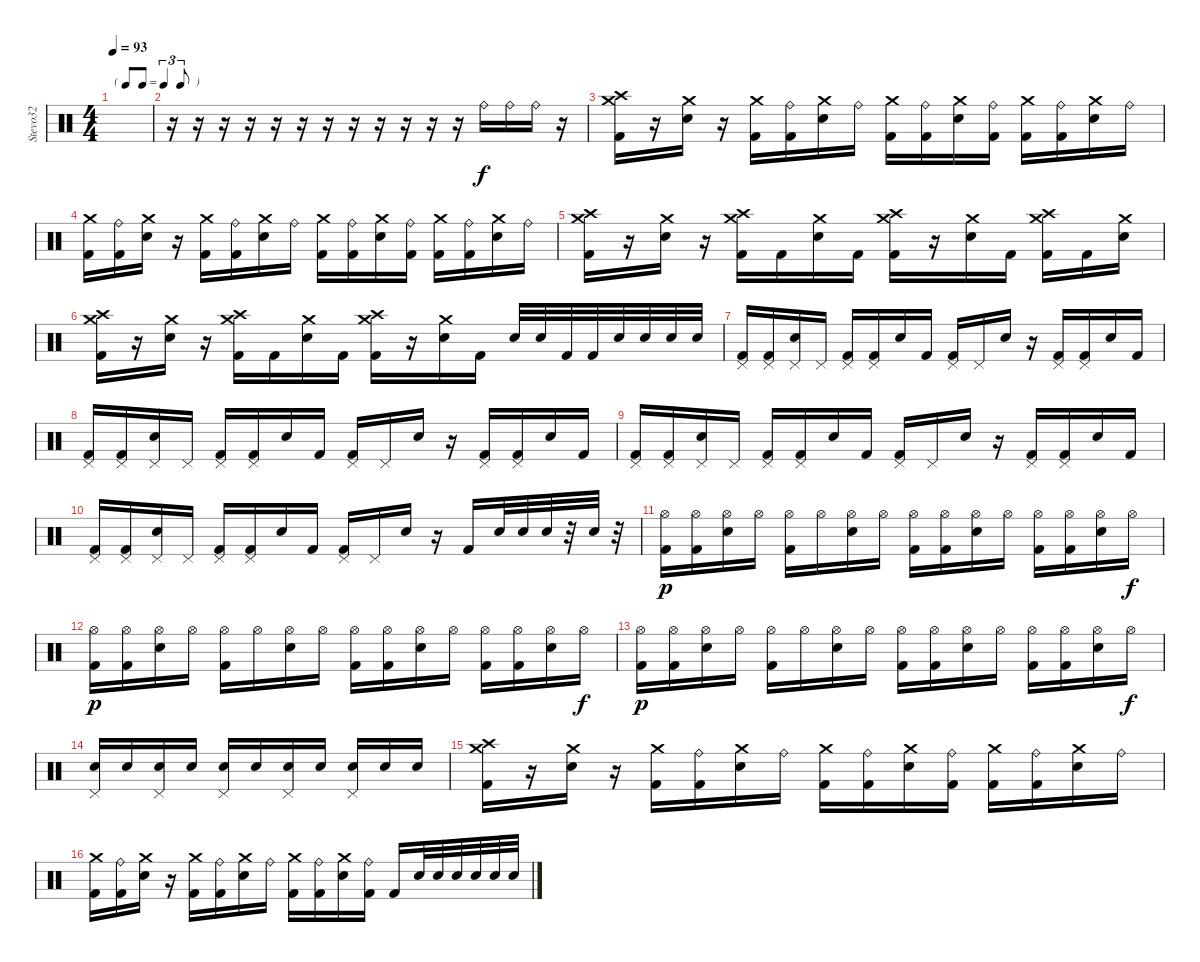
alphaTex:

\track ("Stevo32" "Stevo32") {instrument percussion}
\staff {score}
\articulation defaults
\ts (4 4)
\tf triplet8th
\tempo 93
\clef neutral
\ks c
|
r.16 r.16 r.16 r.16 r.16 r.16 r.16 r.16 r.16 r.16 r.16 r.16 "Ride (bell)".16 "Ride (bell)".16 "Ride (bell)".16 r.16 |
("Crash medium (hit)" "Crash high (hit)" "Kick (hit) 2").16{dy f} r.16 ("Crash medium (hit)" "Electric Snare (hit)").16 r.16 ("Crash medium (hit)" "Kick (hit) 2").16 ("Ride (bell)" "Kick (hit) 2").16 ("Crash medium (hit)" "Electric Snare (hit)").16 "Ride (bell)".16 ("Crash medium (hit)" "Kick (hit) 2").16 ("Ride (bell)" "Kick (hit) 2").16 ("Crash medium (hit)" "Electric Snare (hit)").16 ("Ride (bell)" "Kick (hit) 2").16 ("Crash medium (hit)" "Kick (hit) 2").16 ("Ride (bell)" "Kick (hit) 2").16 ("Crash medium (hit)" "Electric Snare (hit)").16 "Ride (bell)".16 |
("Crash medium (hit)" "Kick (hit) 2").16 ("Ride (bell)" "Kick (hit) 2").16 ("Crash medium (hit)" "Electric Snare (hit)").16 r.16 ("Crash medium (hit)" "Kick (hit) 2").16 ("Ride (bell)" "Kick (hit) 2").16 ("Crash medium (hit)" "Electric Snare (hit)").16 "Ride (bell)".16 ("Crash medium (hit)" "Kick (hit) 2").16 ("Ride (bell)" "Kick (hit) 2").16 ("Crash medium (hit)" "Electric Snare (hit)").16 ("Ride (bell)" "Kick (hit) 2").16 ("Crash medium (hit)" "Kick (hit) 2").16 ("Ride (bell)" "Kick (hit) 2").16 ("Crash medium (hit)" "Electric Snare (hit)").16 "Ride (bell)".16 |
("Crash medium (hit)" "Crash high (hit)" "Kick (hit) 2").16 r.16 ("Crash medium (hit)" "Electric Snare (hit)").16 r.16 ("Crash high (hit)" "Crash medium (hit)" "Kick (hit) 2").16 "Kick (hit) 2".16 ("Crash medium (hit)" "Electric Snare (hit)").16 "Kick (hit) 2".16 ("Crash high (hit)" "Crash medium (hit)" "Kick (hit) 2").16 r.16 ("Crash medium (hit)" "Electric Snare (hit)").16 "Kick (hit) 2".16 ("Crash high (hit)" "Crash medium (hit)" "Kick (hit) 2").16 "Kick (hit) 2".16 ("Crash medium (hit)" "Electric Snare (hit)").16 |
("Crash medium (hit)" "Crash high (hit)" "Kick (hit) 2").16 r.16 ("Crash medium (hit)" "Electric Snare (hit)").16 r.16 ("Crash high (hit)" "Crash medium (hit)" "Kick (hit) 2").16 "Kick (hit) 2".16 ("Crash medium (hit)" "Electric Snare (hit)").16 "Kick (hit) 2".16 ("Crash high (hit)" "Crash medium (hit)" "Kick (hit) 2").16 r.16 ("Crash medium (hit)" "Electric Snare (hit)").16 "Kick (hit) 2".16 "Electric Snare (hit)".32 "Electric Snare (hit)".32 "Kick (hit) 2".32 "Kick (hit) 2".32 "Electric Snare (hit)".32 "Electric Snare (hit)".32 "Electric Snare (hit)".32 "Electric Snare (hit)".32 |
("Pedal Hi-Hat (hit)" "Kick (hit) 2").16 ("Pedal Hi-Hat (hit)" "Kick (hit) 2").16 ("Pedal Hi-Hat (hit)" "Electric Snare (hit)").16 "Pedal Hi-Hat (hit)".16 ("Pedal Hi-Hat (hit)" "Kick (hit) 2").16 ("Pedal Hi-Hat (hit)" "Kick (hit) 2").16 "Electric Snare (hit)".16 "Kick (hit) 2".16 ("Pedal Hi-Hat (hit)" "Kick (hit) 2").16 "Pedal Hi-Hat (hit)".16 "Electric Snare (hit)".16 r.16 ("Pedal Hi-Hat (hit)" "Kick (hit) 2").16 ("Pedal Hi-Hat (hit)" "Kick (hit) 2").16 "Electric Snare (hit)".16 "Kick (hit) 2".16 |
("Pedal Hi-Hat (hit)" "Kick (hit) 2").16 ("Pedal Hi-Hat (hit)" "Kick (hit) 2").16 ("Pedal Hi-Hat (hit)" "Electric Snare (hit)").16 "Pedal Hi-Hat (hit)".16 ("Pedal Hi-Hat (hit)" "Kick (hit) 2").16 ("Pedal Hi-Hat (hit)" "Kick (hit) 2").16 "Electric Snare (hit)".16 "Kick (hit) 2".16 ("Pedal Hi-Hat (hit)" "Kick (hit) 2").16 "Pedal Hi-Hat (hit)".16 "Electric Snare (hit)".16 r.16 ("Pedal Hi-Hat (hit)" "Kick (hit) 2").16 ("Pedal Hi-Hat (hit)" "Kick (hit) 2").16 "Electric Snare (hit)".16 "Kick (hit) 2".16 |
("Pedal Hi-Hat (hit)" "Kick (hit) 2").16 ("Pedal Hi-Hat (hit)" "Kick (hit) 2").16 ("Pedal Hi-Hat (hit)" "Electric Snare (hit)").16 "Pedal Hi-Hat (hit)".16 ("Pedal Hi-Hat (hit)" "Kick (hit) 2").16 ("Pedal Hi-Hat (hit)" "Kick (hit) 2").16 "Electric Snare (hit)".16 "Kick (hit) 2".16 ("Pedal Hi-Hat (hit)" "Kick (hit) 2").16 "Pedal Hi-Hat (hit)".16 "Electric Snare (hit)".16 r.16 ("Pedal Hi-Hat (hit)" "Kick (hit) 2").16 ("Pedal Hi-Hat (hit)" "Kick (hit) 2").16 "Electric Snare (hit)".16 "Kick (hit) 2".16 |
("Pedal Hi-Hat (hit)" "Kick (hit) 2").16 ("Pedal Hi-Hat (hit)" "Kick (hit) 2").16 ("Pedal Hi-Hat (hit)" "Electric Snare (hit)").16 "Pedal Hi-Hat (hit)".16 ("Pedal Hi-Hat (hit)" "Kick (hit) 2").16 ("Pedal Hi-Hat (hit)" "Kick (hit) 2").16 "Electric Snare (hit)".16 "Kick (hit) 2".16 ("Pedal Hi-Hat (hit)" "Kick (hit) 2").16 "Pedal Hi-Hat (hit)".16 "Electric Snare (hit)".16 r.16 "Kick (hit) 2".16 "Electric Snare (hit)".32 "Electric Snare (hit)".32 "Electric Snare (hit)".32 r.32 "Electric Snare (hit)".32 r.32 |
("Hi-Hat (open)" "Kick (hit) 2").16{dy p} ("Hi-Hat (open)" "Kick (hit) 2").16 ("Hi-Hat (open)" "Electric Snare (hit)").16 "Hi-Hat (open)".16 ("Hi-Hat (open)" "Kick (hit) 2").16 "Hi-Hat (open)".16 ("Hi-Hat (open)" "Electric Snare (hit)").16 "Hi-Hat (open)".16 ("Hi-Hat (open)" "Kick (hit) 2").16 ("Hi-Hat (open)" "Kick (hit) 2").16 ("Hi-Hat (open)" "Electric Snare (hit)").16 "Hi-Hat (open)".16 ("Hi-Hat (open)" "Kick (hit) 2").16 ("Hi-Hat (open)" "Kick (hit) 2").16 ("Hi-Hat (open)" "Electric Snare (hit)").16 "Hi-Hat (open)".16{dy f} |
("Hi-Hat (open)" "Kick (hit) 2").16{dy p} ("Hi-Hat (open)" "Kick (hit) 2").16 ("Hi-Hat (open)" "Electric Snare (hit)").16 "Hi-Hat (open)".16 ("Hi-Hat (open)" "Kick (hit) 2").16 "Hi-Hat (open)".16 ("Hi-Hat (open)" "Electric Snare (hit)").16 "Hi-Hat (open)".16 ("Hi-Hat (open)" "Kick (hit) 2").16 ("Hi-Hat (open)" "Kick (hit) 2").16 ("Hi-Hat (open)" "Electric Snare (hit)").16 "Hi-Hat (open)".16 ("Hi-Hat (open)" "Kick (hit) 2").16 ("Hi-Hat (open)" "Kick (hit) 2").16 ("Hi-Hat (open)" "Electric Snare (hit)").16 "Hi-Hat (open)".16{dy f} |
("Hi-Hat (open)" "Kick (hit) 2").16{dy p} ("Hi-Hat (open)" "Kick (hit) 2").16 ("Hi-Hat (open)" "Electric Snare (hit)").16 "Hi-Hat (open)".16 ("Hi-Hat (open)" "Kick (hit) 2").16 "Hi-Hat (open)".16 ("Hi-Hat (open)" "Electric Snare (hit)").16 "Hi-Hat (open)".16 ("Hi-Hat (open)" "Kick (hit) 2").16 ("Hi-Hat (open)" "Kick (hit) 2").16 ("Hi-Hat (open)" "Electric Snare (hit)").16 "Hi-Hat (open)".16 ("Hi-Hat (open)" "Kick (hit) 2").16 ("Hi-Hat (open)" "Kick (hit) 2").16 ("Hi-Hat (open)" "Electric Snare (hit)").16 "Hi-Hat (open)".16{dy f} |
("Pedal Hi-Hat (hit)" "Electric Snare (hit)").16 "Electric Snare (hit)".16 ("Pedal Hi-Hat (hit)" "Electric Snare (hit)").16 "Electric Snare (hit)".16 ("Pedal Hi-Hat (hit)" "Electric Snare (hit)").16 "Electric Snare (hit)".16 ("Pedal Hi-Hat (hit)" "Electric Snare (hit)").16 "Electric Snare (hit)".16 ("Pedal Hi-Hat (hit)" "Electric Snare (hit)").16 "Electric Snare (hit)".16 "Electric Snare (hit)".16 |
("Crash medium (hit)" "Crash high (hit)" "Kick (hit) 2").16 r.16 ("Crash medium (hit)" "Electric Snare (hit)").16 r.16 ("Crash medium (hit)" "Kick (hit) 2").16 ("Ride (bell)" "Kick (hit) 2").16 ("Crash medium (hit)" "Electric Snare (hit)").16 "Ride (bell)".16 ("Crash medium (hit)" "Kick (hit) 2").16 ("Ride (bell)" "Kick (hit) 2").16 ("Crash medium (hit)" "Electric Snare (hit)").16 ("Ride (bell)" "Kick (hit) 2").16 ("Crash medium (hit)" "Kick (hit) 2").16 ("Ride (bell)" "Kick (hit) 2").16 ("Crash medium (hit)" "Electric Snare (hit)").16 "Ride (bell)".16 |
("Crash medium (hit)" "Kick (hit) 2").16 ("Ride (bell)" "Kick (hit) 2").16 ("Crash medium (hit)" "Electric Snare (hit)").16 r.16 ("Crash medium (hit)" "Kick (hit) 2").16 ("Ride (bell)" "Kick (hit) 2").16 ("Crash medium (hit)" "Electric Snare (hit)").16 "Ride (bell)".16 ("Crash medium (hit)" "Kick (hit) 2").16 ("Ride (bell)" "Kick (hit) 2").16 ("Crash medium (hit)" "Electric Snare (hit)").16 ("Ride (bell)" "Kick (hit) 2").16 "Kick (hit) 2".16 "Electric Snare (hit)".32 "Electric Snare (hit)".32 "Electric Snare (hit)".32 "Electric Snare (hit)".32 "Electric Snare (hit)".32 "Electric Snare (hit)".32
